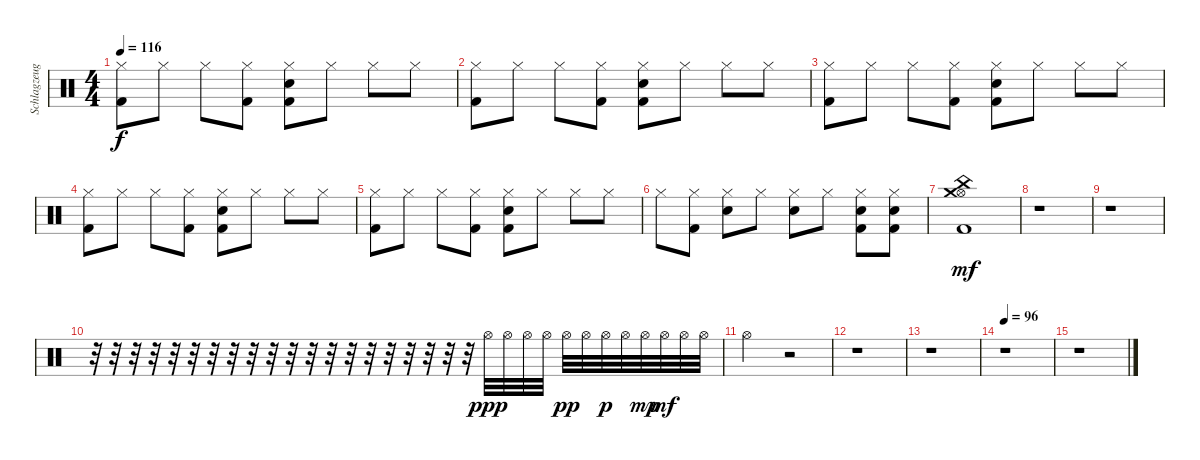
\track ("Schlagzeug" "Schlagzeug") {instrument percussion}
\staff {score}
\articulation defaults
\ts (4 4)
\tempo 116
\clef neutral
\ks c
("Hi-Hat (closed)" "Kick (hit) 2").8{dy f} "Hi-Hat (closed)".8 "Hi-Hat (closed)".8 ("Hi-Hat (closed)" "Kick (hit) 2").8 ("Snare (hit) 2" "Hi-Hat (closed)" "Kick (hit) 2").8 "Hi-Hat (closed)".8 "Hi-Hat (closed)".8 "Hi-Hat (closed)".8 |
("Hi-Hat (closed)" "Kick (hit) 2").8 "Hi-Hat (closed)".8 "Hi-Hat (closed)".8 ("Hi-Hat (closed)" "Kick (hit) 2").8 ("Snare (hit) 2" "Hi-Hat (closed)" "Kick (hit) 2").8 "Hi-Hat (closed)".8 "Hi-Hat (closed)".8 "Hi-Hat (closed)".8 |
("Hi-Hat (closed)" "Kick (hit) 2").8 "Hi-Hat (closed)".8 "Hi-Hat (closed)".8 ("Hi-Hat (closed)" "Kick (hit) 2").8 ("Snare (hit) 2" "Hi-Hat (closed)" "Kick (hit) 2").8 "Hi-Hat (closed)".8 "Hi-Hat (closed)".8 "Hi-Hat (closed)".8 |
("Hi-Hat (closed)" "Kick (hit) 2").8 "Hi-Hat (closed)".8 "Hi-Hat (closed)".8 ("Hi-Hat (closed)" "Kick (hit) 2").8 ("Snare (hit) 2" "Hi-Hat (closed)" "Kick (hit) 2").8 "Hi-Hat (closed)".8 "Hi-Hat (closed)".8 "Hi-Hat (closed)".8 |
("Hi-Hat (closed)" "Kick (hit) 2").8 "Hi-Hat (closed)".8 "Hi-Hat (closed)".8 ("Hi-Hat (closed)" "Kick (hit) 2").8 ("Snare (hit) 2" "Hi-Hat (closed)" "Kick (hit) 2").8 "Hi-Hat (closed)".8 "Hi-Hat (closed)".8 "Hi-Hat (closed)".8 |
"Hi-Hat (closed)".8 ("Hi-Hat (closed)" "Kick (hit) 2").8 ("Snare (hit) 2" "Hi-Hat (closed)").8 "Hi-Hat (closed)".8 ("Snare (hit) 2" "Hi-Hat (closed)").8 "Hi-Hat (closed)".8 ("Snare (hit) 2" "Hi-Hat (closed)" "Kick (hit) 2").8 ("Snare (hit) 2" "Hi-Hat (closed)" "Kick (hit) 2").8 |
("China (hit)" "Hi-Hat (open)" "Crash medium (hit)" "Kick (hit) 2").1{dy mf} |
r.1 |
r.1 |
r.32 r.32 r.32 r.32 r.32 r.32 r.32 r.32 r.32 r.32 r.32 r.32 r.32 r.32 r.32 r.32 r.32 r.32 r.32 r.32 "Hi-Hat (open)".32{dy ppp} "Hi-Hat (open)".32 "Hi-Hat (open)".32 "Hi-Hat (open)".32 "Hi-Hat (open)".32{dy pp} "Hi-Hat (open)".32 "Hi-Hat (open)".32{dy p} "Hi-Hat (open)".32 "Hi-Hat (open)".32{dy mp} "Hi-Hat (open)".32{dy mf} "Hi-Hat (open)".32 "Hi-Hat (open)".32 |
"Hi-Hat (open)".2 r.2 |
r.1 |
r.1 |
\tempo 96
r.1 |
r.1
